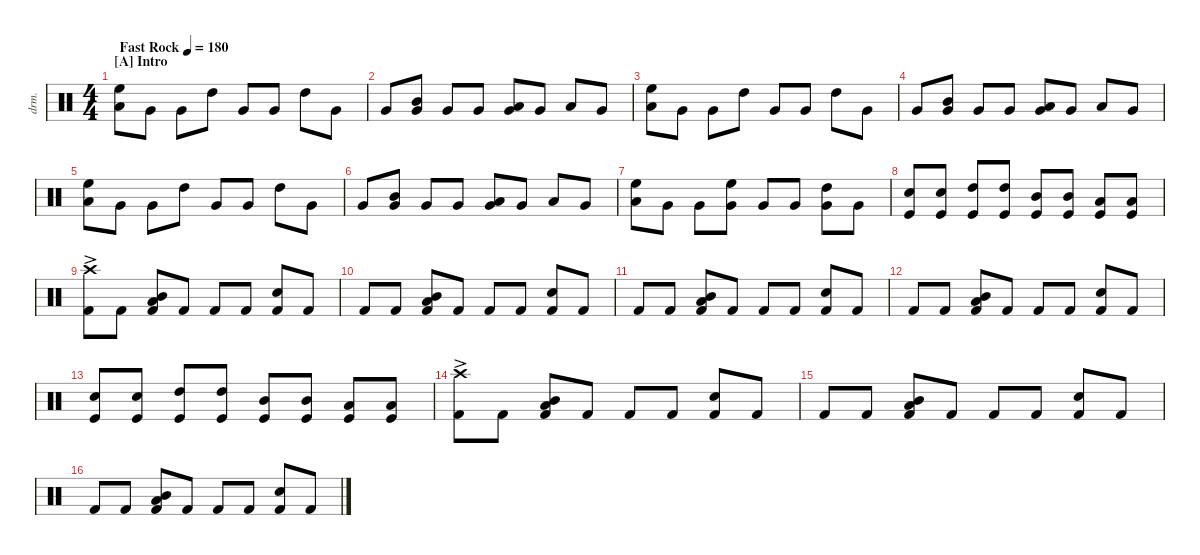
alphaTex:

\defaultSystemsLayout 4
\hideDynamics
\bracketExtendMode nobrackets
\otherSystemsTrackNameOrientation horizontal
\track ("Drum" "drm.") {instrument percussion}
\staff {score}
\articulation defaults
\ts (4 4)
\section ("A" "Intro")
\tempo (180 "Fast Rock")
\clef neutral
\ks c
("High Floor Tom (hit)" "Low Tom (hit)").8{dy f beam Down} "Very Low Tom (hit)".8{beam Down} "Very Low Tom (hit)".8{beam Down} "High Tom (hit)".8{beam Down} "Very Low Tom (hit)".8{beam Up} "Very Low Tom (hit)".8{beam Up} "High Tom (hit)".8{beam Down} "Very Low Tom (hit)".8{beam Down} |
"Very Low Tom (hit)".8{beam Up} ("Mid Tom (hit)" "Very Low Tom (hit)").8{beam Up} "Very Low Tom (hit)".8{beam Up} "Very Low Tom (hit)".8{beam Up} ("Low Tom (hit)" "Very Low Tom (hit)").8{beam Up} "Very Low Tom (hit)".8{beam Up} "Low Tom (hit)".8{beam Up} "Very Low Tom (hit)".8{beam Up} |
("High Floor Tom (hit)" "Low Tom (hit)").8{beam Down} "Very Low Tom (hit)".8{beam Down} "Very Low Tom (hit)".8{beam Down} "High Tom (hit)".8{beam Down} "Very Low Tom (hit)".8{beam Up} "Very Low Tom (hit)".8{beam Up} "High Tom (hit)".8{beam Down} "Very Low Tom (hit)".8{beam Down} |
"Very Low Tom (hit)".8{beam Up} ("Mid Tom (hit)" "Very Low Tom (hit)").8{beam Up} "Very Low Tom (hit)".8{beam Up} "Very Low Tom (hit)".8{beam Up} ("Low Tom (hit)" "Very Low Tom (hit)").8{beam Up} "Very Low Tom (hit)".8{beam Up} "Low Tom (hit)".8{beam Up} "Very Low Tom (hit)".8{beam Up} |
("High Floor Tom (hit)" "Low Tom (hit)").8{beam Down} "Very Low Tom (hit)".8{beam Down} "Very Low Tom (hit)".8{beam Down} "High Tom (hit)".8{beam Down} "Very Low Tom (hit)".8{beam Up} "Very Low Tom (hit)".8{beam Up} "High Tom (hit)".8{beam Down} "Very Low Tom (hit)".8{beam Down} |
"Very Low Tom (hit)".8{beam Up} ("Mid Tom (hit)" "Very Low Tom (hit)").8{beam Up} "Very Low Tom (hit)".8{beam Up} "Very Low Tom (hit)".8{beam Up} ("Low Tom (hit)" "Very Low Tom (hit)").8{beam Up} "Very Low Tom (hit)".8{beam Up} "Low Tom (hit)".8{beam Up} "Very Low Tom (hit)".8{beam Up} |
("High Floor Tom (hit)" "Low Tom (hit)").8{beam Down} "Very Low Tom (hit)".8{beam Down} "Very Low Tom (hit)".8{beam Down} ("High Floor Tom (hit)" "Very Low Tom (hit)").8{beam Down} "Very Low Tom (hit)".8{beam Up} "Very Low Tom (hit)".8{beam Up} ("High Tom (hit)" "Very Low Tom (hit)").8{beam Down} "Very Low Tom (hit)".8{beam Down} |
("Snare (hit) 2" "Kick (hit)").8{beam Up} ("Snare (hit) 2" "Kick (hit)").8{beam Up} ("High Tom (hit)" "Kick (hit)").8{beam Up} ("High Tom (hit)" "Kick (hit)").8{beam Up} ("Mid Tom (hit)" "Kick (hit)").8{beam Up} ("Mid Tom (hit)" "Kick (hit)").8{beam Up} ("Low Tom (hit)" "Kick (hit)").8{beam Up} ("Low Tom (hit)" "Kick (hit)").8{beam Up} |
("Kick (hit) 2"{ac} "Crash high (hit)"{ac}).8{beam Down} "Kick (hit) 2".8{beam Down} ("Kick (hit) 2" "Low Tom (hit)" "Mid Tom (hit)").8{beam Up} "Kick (hit) 2".8{beam Up} "Kick (hit) 2".8{beam Up} "Kick (hit) 2".8{beam Up} ("Kick (hit) 2" "Snare (hit) 2").8{beam Up} "Kick (hit) 2".8{beam Up} |
"Kick (hit) 2".8{beam Up} "Kick (hit) 2".8{beam Up} ("Kick (hit) 2" "Low Tom (hit)" "Mid Tom (hit)").8{beam Up} "Kick (hit) 2".8{beam Up} "Kick (hit) 2".8{beam Up} "Kick (hit) 2".8{beam Up} ("Kick (hit) 2" "Snare (hit) 2").8{beam Up} "Kick (hit) 2".8{beam Up} |
"Kick (hit) 2".8{beam Up} "Kick (hit) 2".8{beam Up} ("Kick (hit) 2" "Low Tom (hit)" "Mid Tom (hit)").8{beam Up} "Kick (hit) 2".8{beam Up} "Kick (hit) 2".8{beam Up} "Kick (hit) 2".8{beam Up} ("Kick (hit) 2" "Snare (hit) 2").8{beam Up} "Kick (hit) 2".8{beam Up} |
"Kick (hit) 2".8{beam Up} "Kick (hit) 2".8{beam Up} ("Kick (hit) 2" "Low Tom (hit)" "Mid Tom (hit)").8{beam Up} "Kick (hit) 2".8{beam Up} "Kick (hit) 2".8{beam Up} "Kick (hit) 2".8{beam Up} ("Kick (hit) 2" "Snare (hit) 2").8{beam Up} "Kick (hit) 2".8{beam Up} |
("Snare (hit) 2" "Kick (hit)").8{beam Up} ("Snare (hit) 2" "Kick (hit)").8{beam Up} ("High Tom (hit)" "Kick (hit)").8{beam Up} ("High Tom (hit)" "Kick (hit)").8{beam Up} ("Mid Tom (hit)" "Kick (hit)").8{beam Up} ("Mid Tom (hit)" "Kick (hit)").8{beam Up} ("Low Tom (hit)" "Kick (hit)").8{beam Up} ("Low Tom (hit)" "Kick (hit)").8{beam Up} |
("Kick (hit) 2"{ac} "Crash high (hit)"{ac}).8{beam Down} "Kick (hit) 2".8{beam Down} ("Kick (hit) 2" "Low Tom (hit)" "Mid Tom (hit)").8{beam Up} "Kick (hit) 2".8{beam Up} "Kick (hit) 2".8{beam Up} "Kick (hit) 2".8{beam Up} ("Kick (hit) 2" "Snare (hit) 2").8{beam Up} "Kick (hit) 2".8{beam Up} |
"Kick (hit) 2".8{beam Up} "Kick (hit) 2".8{beam Up} ("Kick (hit) 2" "Low Tom (hit)" "Mid Tom (hit)").8{beam Up} "Kick (hit) 2".8{beam Up} "Kick (hit) 2".8{beam Up} "Kick (hit) 2".8{beam Up} ("Kick (hit) 2" "Snare (hit) 2").8{beam Up} "Kick (hit) 2".8{beam Up} |
"Kick (hit) 2".8{beam Up} "Kick (hit) 2".8{beam Up} ("Kick (hit) 2" "Low Tom (hit)" "Mid Tom (hit)").8{beam Up} "Kick (hit) 2".8{beam Up} "Kick (hit) 2".8{beam Up} "Kick (hit) 2".8{beam Up} ("Kick (hit) 2" "Snare (hit) 2").8{beam Up} "Kick (hit) 2".8{beam Up}
